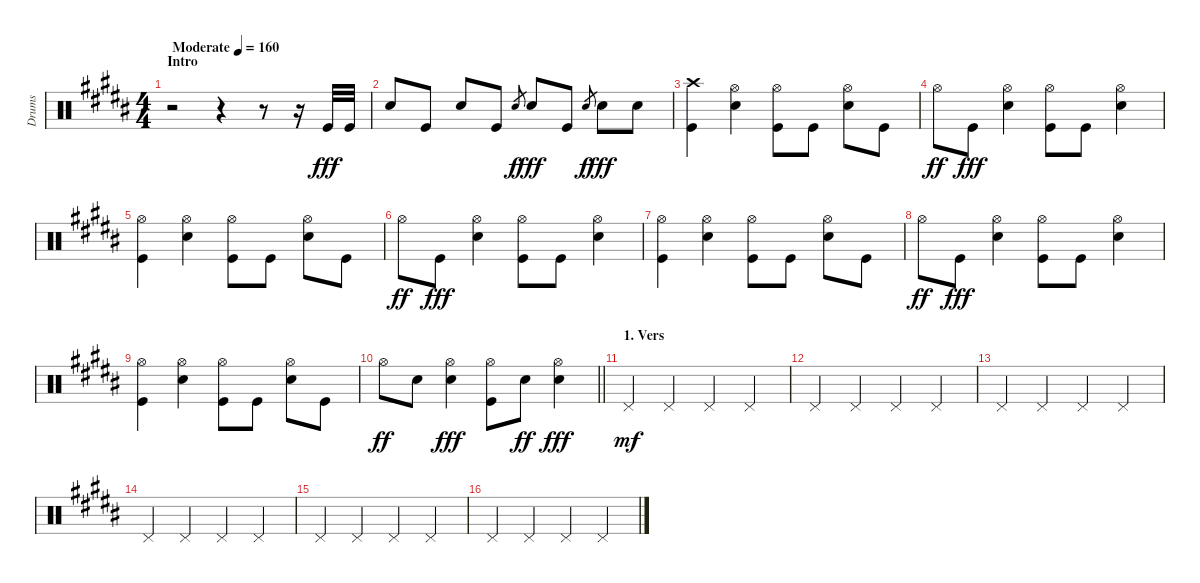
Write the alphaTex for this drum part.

\track ("Drums" "Drums") {instrument percussion}
\staff {score}
\articulation defaults
\ts (4 4)
\section ("" "Intro")
\tempo (160 "Moderate")
\clef neutral
\ks b
r.2{dy fff} r.4 r.8 r.16 "Kick (hit)".32 "Kick (hit)".32 |
"Snare (hit) 2".8 "Kick (hit)".8 "Snare (hit) 2".8 "Kick (hit)".8 "Snare (hit) 2".8{gr dy f} "Snare (hit) 2".8{dy fff} "Kick (hit)".8 "Snare (hit) 2".8{gr dy f} "Snare (hit) 2".8{dy fff} "Snare (hit) 2".8 |
("Crash high (hit)" "Kick (hit)").4 ("Hi-Hat (open)" "Snare (hit) 2").4 ("Hi-Hat (open)" "Kick (hit)").8 "Kick (hit)".8 ("Hi-Hat (open)" "Snare (hit) 2").8 "Kick (hit)".8 |
"Hi-Hat (open)".8{dy ff} "Kick (hit)".8{dy fff} ("Hi-Hat (open)" "Snare (hit) 2").4 ("Hi-Hat (open)" "Kick (hit)").8 "Kick (hit)".8 ("Hi-Hat (open)" "Snare (hit) 2").4 |
("Hi-Hat (open)" "Kick (hit)").4 ("Hi-Hat (open)" "Snare (hit) 2").4 ("Hi-Hat (open)" "Kick (hit)").8 "Kick (hit)".8 ("Hi-Hat (open)" "Snare (hit) 2").8 "Kick (hit)".8 |
"Hi-Hat (open)".8{dy ff} "Kick (hit)".8{dy fff} ("Hi-Hat (open)" "Snare (hit) 2").4 ("Hi-Hat (open)" "Kick (hit)").8 "Kick (hit)".8 ("Hi-Hat (open)" "Snare (hit) 2").4 |
("Hi-Hat (open)" "Kick (hit)").4 ("Hi-Hat (open)" "Snare (hit) 2").4 ("Hi-Hat (open)" "Kick (hit)").8 "Kick (hit)".8 ("Hi-Hat (open)" "Snare (hit) 2").8 "Kick (hit)".8 |
"Hi-Hat (open)".8{dy ff} "Kick (hit)".8{dy fff} ("Hi-Hat (open)" "Snare (hit) 2").4 ("Hi-Hat (open)" "Kick (hit)").8 "Kick (hit)".8 ("Hi-Hat (open)" "Snare (hit) 2").4 |
("Hi-Hat (open)" "Kick (hit)").4 ("Hi-Hat (open)" "Snare (hit) 2").4 ("Hi-Hat (open)" "Kick (hit)").8 "Kick (hit)".8 ("Hi-Hat (open)" "Snare (hit) 2").8 "Kick (hit)".8 |
\barLineRight lightlight "Hi-Hat (open)".8{dy ff} "Snare (hit) 2".8
("Hi-Hat (open)" "Snare (hit) 2").4{dy fff} ("Hi-Hat (open)" "Kick (hit)").8 "Snare (hit) 2".8{dy ff} ("Hi-Hat (open)" "Snare (hit) 2").4{dy fff} |
\section ("" "1. Vers")
"Pedal Hi-Hat (hit)".4{dy mf} "Pedal Hi-Hat (hit)".4 "Pedal Hi-Hat (hit)".4 "Pedal Hi-Hat (hit)".4 |
"Pedal Hi-Hat (hit)".4 "Pedal Hi-Hat (hit)".4 "Pedal Hi-Hat (hit)".4 "Pedal Hi-Hat (hit)".4 |
"Pedal Hi-Hat (hit)".4 "Pedal Hi-Hat (hit)".4 "Pedal Hi-Hat (hit)".4 "Pedal Hi-Hat (hit)".4 |
"Pedal Hi-Hat (hit)".4 "Pedal Hi-Hat (hit)".4 "Pedal Hi-Hat (hit)".4 "Pedal Hi-Hat (hit)".4 |
"Pedal Hi-Hat (hit)".4 "Pedal Hi-Hat (hit)".4 "Pedal Hi-Hat (hit)".4 "Pedal Hi-Hat (hit)".4 |
"Pedal Hi-Hat (hit)".4 "Pedal Hi-Hat (hit)".4 "Pedal Hi-Hat (hit)".4 "Pedal Hi-Hat (hit)".4
